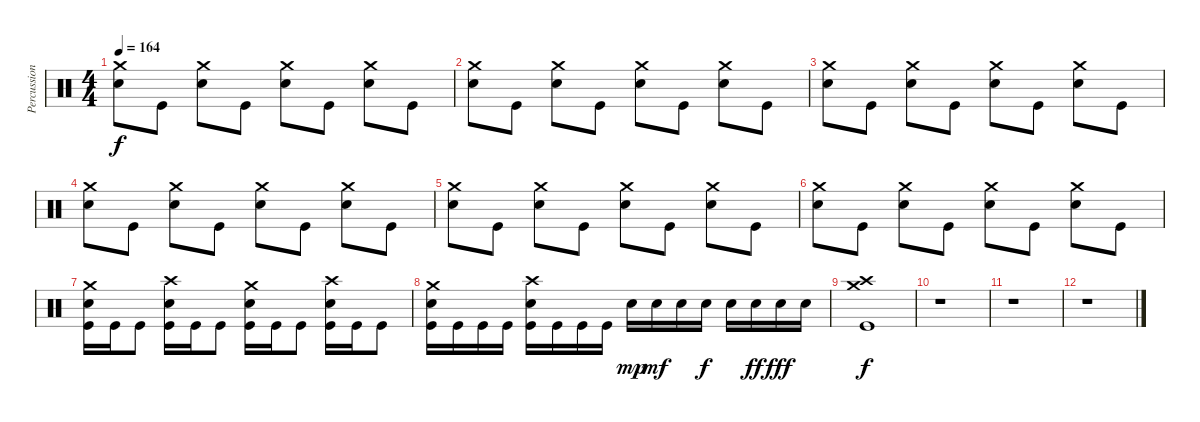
\track ("Percussion" "Percussion") {instrument percussion}
\staff {score}
\articulation defaults
\ts (4 4)
\tempo 164
\clef neutral
\ks c
("Crash medium (hit)" "Electric Snare (hit)").8{dy f} "Kick (hit)".8 ("Crash medium (hit)" "Electric Snare (hit)").8 "Kick (hit)".8 ("Crash medium (hit)" "Electric Snare (hit)").8 "Kick (hit)".8 ("Crash medium (hit)" "Electric Snare (hit)").8 "Kick (hit)".8 |
("Crash medium (hit)" "Electric Snare (hit)").8 "Kick (hit)".8 ("Crash medium (hit)" "Electric Snare (hit)").8 "Kick (hit)".8 ("Crash medium (hit)" "Electric Snare (hit)").8 "Kick (hit)".8 ("Crash medium (hit)" "Electric Snare (hit)").8 "Kick (hit)".8 |
("Crash medium (hit)" "Electric Snare (hit)").8 "Kick (hit)".8 ("Crash medium (hit)" "Electric Snare (hit)").8 "Kick (hit)".8 ("Crash medium (hit)" "Electric Snare (hit)").8 "Kick (hit)".8 ("Crash medium (hit)" "Electric Snare (hit)").8 "Kick (hit)".8 |
("Crash medium (hit)" "Electric Snare (hit)").8 "Kick (hit)".8 ("Crash medium (hit)" "Electric Snare (hit)").8 "Kick (hit)".8 ("Crash medium (hit)" "Electric Snare (hit)").8 "Kick (hit)".8 ("Crash medium (hit)" "Electric Snare (hit)").8 "Kick (hit)".8 |
("Crash medium (hit)" "Electric Snare (hit)").8 "Kick (hit)".8 ("Crash medium (hit)" "Electric Snare (hit)").8 "Kick (hit)".8 ("Crash medium (hit)" "Electric Snare (hit)").8 "Kick (hit)".8 ("Crash medium (hit)" "Electric Snare (hit)").8 "Kick (hit)".8 |
("Crash medium (hit)" "Electric Snare (hit)").8 "Kick (hit)".8 ("Crash medium (hit)" "Electric Snare (hit)").8 "Kick (hit)".8 ("Crash medium (hit)" "Electric Snare (hit)").8 "Kick (hit)".8 ("Crash medium (hit)" "Electric Snare (hit)").8 "Kick (hit)".8 |
("Crash medium (hit)" "Electric Snare (hit)" "Kick (hit)").16 "Kick (hit)".16 "Kick (hit)".8 ("Crash high (hit)" "Electric Snare (hit)" "Kick (hit)").16 "Kick (hit)".16 "Kick (hit)".8 ("Crash medium (hit)" "Electric Snare (hit)" "Kick (hit)").16 "Kick (hit)".16 "Kick (hit)".8 ("Crash high (hit)" "Electric Snare (hit)" "Kick (hit)").16 "Kick (hit)".16 "Kick (hit)".8 |
("Crash medium (hit)" "Electric Snare (hit)" "Kick (hit)").16 "Kick (hit)".16 "Kick (hit)".16 "Kick (hit)".16 ("Crash high (hit)" "Electric Snare (hit)" "Kick (hit)").16 "Kick (hit)".16 "Kick (hit)".16 "Kick (hit)".16 "Electric Snare (hit)".16{dy mp} "Electric Snare (hit)".16{dy mf} "Electric Snare (hit)".16 "Electric Snare (hit)".16{dy f} "Electric Snare (hit)".16 "Electric Snare (hit)".16{dy ff} "Electric Snare (hit)".16{dy fff} "Electric Snare (hit)".16 |
("Crash medium (hit)" "Crash high (hit)" "Kick (hit)").1{dy f} |
r.1 |
r.1 |
r.1
